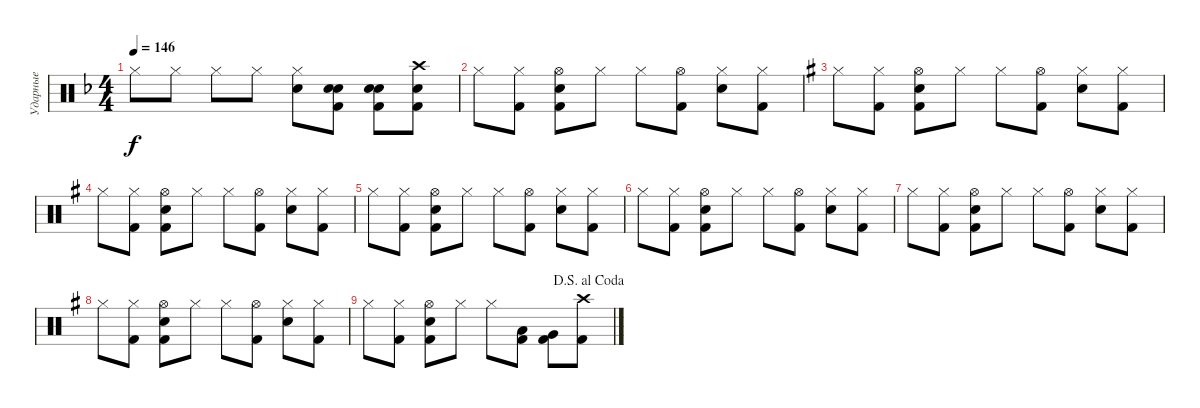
\track ("Ударные" "Ударные") {instrument percussion}
\staff {score}
\articulation defaults
\ts (4 4)
\tempo 146
\clef neutral
\ks f "Hi-Hat (closed)".8{dy f} "Hi-Hat (closed)".8 "Hi-Hat (closed)".8 "Hi-Hat (closed)".8
("Hi-Hat (closed)" "Snare (hit) 2").8 ("Snare (hit) 2" "Snare (hit) 2" "Kick (hit) 2").8 ("Snare (hit) 2" "Snare (hit) 2" "Kick (hit) 2").8 ("Crash high (hit)" "Snare (hit) 2" "Kick (hit) 2").8 |
"Hi-Hat (closed)".8 ("Hi-Hat (closed)" "Kick (hit) 2").8 ("Hi-Hat (open)" "Snare (hit) 2" "Kick (hit) 2").8 "Hi-Hat (closed)".8 "Hi-Hat (closed)".8 ("Hi-Hat (open)" "Kick (hit) 2").8 ("Hi-Hat (closed)" "Snare (hit) 2").8 ("Hi-Hat (closed)" "Kick (hit) 2").8 |
\ks g "Hi-Hat (closed)".8
("Hi-Hat (closed)" "Kick (hit) 2").8 ("Hi-Hat (open)" "Snare (hit) 2" "Kick (hit) 2").8 "Hi-Hat (closed)".8 "Hi-Hat (closed)".8 ("Hi-Hat (open)" "Kick (hit) 2").8 ("Hi-Hat (closed)" "Snare (hit) 2").8 ("Hi-Hat (closed)" "Kick (hit) 2").8 |
"Hi-Hat (closed)".8 ("Hi-Hat (closed)" "Kick (hit) 2").8 ("Hi-Hat (open)" "Snare (hit) 2" "Kick (hit) 2").8 "Hi-Hat (closed)".8 "Hi-Hat (closed)".8 ("Hi-Hat (open)" "Kick (hit) 2").8 ("Hi-Hat (closed)" "Snare (hit) 2").8 ("Hi-Hat (closed)" "Kick (hit) 2").8 |
"Hi-Hat (closed)".8 ("Hi-Hat (closed)" "Kick (hit) 2").8 ("Hi-Hat (open)" "Snare (hit) 2" "Kick (hit) 2").8 "Hi-Hat (closed)".8 "Hi-Hat (closed)".8 ("Hi-Hat (open)" "Kick (hit) 2").8 ("Hi-Hat (closed)" "Snare (hit) 2").8 ("Hi-Hat (closed)" "Kick (hit) 2").8 |
"Hi-Hat (closed)".8 ("Hi-Hat (closed)" "Kick (hit) 2").8 ("Hi-Hat (open)" "Snare (hit) 2" "Kick (hit) 2").8 "Hi-Hat (closed)".8 "Hi-Hat (closed)".8 ("Hi-Hat (open)" "Kick (hit) 2").8 ("Hi-Hat (closed)" "Snare (hit) 2").8 ("Hi-Hat (closed)" "Kick (hit) 2").8 |
"Hi-Hat (closed)".8 ("Hi-Hat (closed)" "Kick (hit) 2").8 ("Hi-Hat (open)" "Snare (hit) 2" "Kick (hit) 2").8 "Hi-Hat (closed)".8 "Hi-Hat (closed)".8 ("Hi-Hat (open)" "Kick (hit) 2").8 ("Hi-Hat (closed)" "Snare (hit) 2").8 ("Hi-Hat (closed)" "Kick (hit) 2").8 |
"Hi-Hat (closed)".8 ("Hi-Hat (closed)" "Kick (hit) 2").8 ("Hi-Hat (open)" "Snare (hit) 2" "Kick (hit) 2").8 "Hi-Hat (closed)".8 "Hi-Hat (closed)".8 ("Hi-Hat (open)" "Kick (hit) 2").8 ("Hi-Hat (closed)" "Snare (hit) 2").8 ("Hi-Hat (closed)" "Kick (hit) 2").8 |
\jump dalsegnoalcoda "Hi-Hat (closed)".8
("Hi-Hat (closed)" "Kick (hit) 2").8 ("Hi-Hat (open)" "Snare (hit) 2" "Kick (hit) 2").8 "Hi-Hat (closed)".8 "Hi-Hat (closed)".8 ("Low Floor Tom (hit)" "Kick (hit) 2").8 ("Very Low Tom (hit)" "Kick (hit) 2").8 ("Crash high (hit)" "Kick (hit) 2").8
